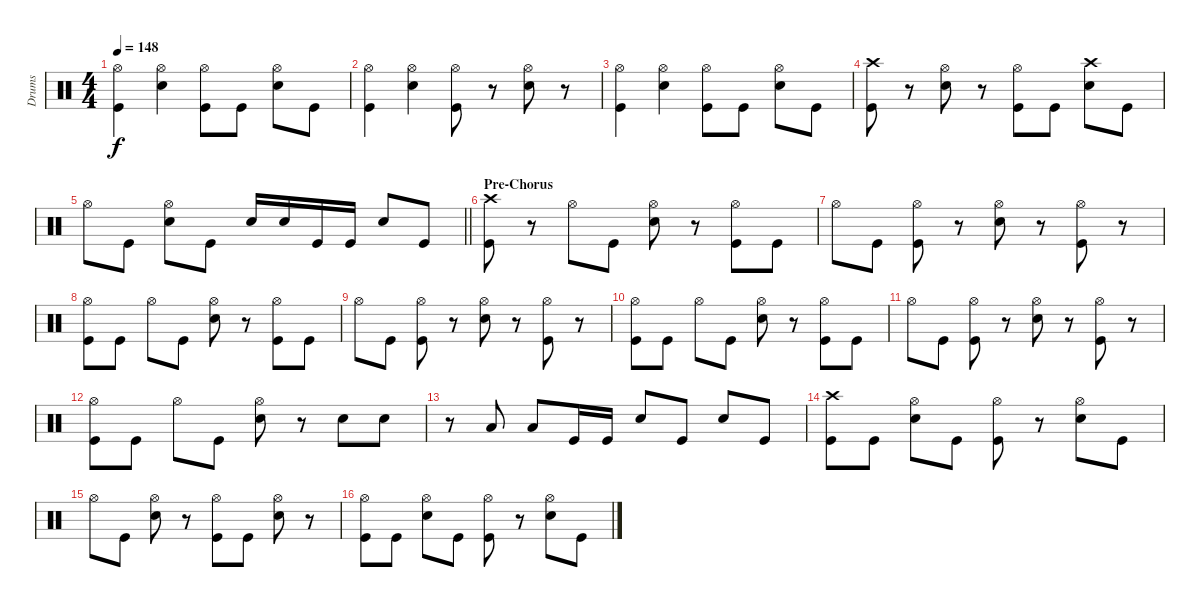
\track ("Drums" "Drums") {instrument percussion}
\staff {score}
\articulation defaults
\ts (4 4)
\tempo 148
\clef neutral
\ks c
("Hi-Hat (open)" "Kick (hit)").4{dy f} ("Snare (hit) 2" "Hi-Hat (open)").4 ("Kick (hit)" "Hi-Hat (open)").8 "Kick (hit)".8 ("Snare (hit) 2" "Hi-Hat (open)").8 "Kick (hit)".8 |
("Hi-Hat (open)" "Kick (hit)").4 ("Snare (hit) 2" "Hi-Hat (open)").4 ("Kick (hit)" "Hi-Hat (open)").8 r.8 ("Snare (hit) 2" "Hi-Hat (open)").8 r.8 |
("Hi-Hat (open)" "Kick (hit)").4 ("Snare (hit) 2" "Hi-Hat (open)").4 ("Kick (hit)" "Hi-Hat (open)").8 "Kick (hit)".8 ("Snare (hit) 2" "Hi-Hat (open)").8 "Kick (hit)".8 |
("Kick (hit)" "Crash high (hit)").8 r.8 ("Snare (hit) 2" "Hi-Hat (open)").8 r.8 ("Kick (hit)" "Hi-Hat (open)").8 "Kick (hit)".8 ("Snare (hit) 2" "Crash high (hit)").8 "Kick (hit)".8 |
\barLineRight lightlight "Hi-Hat (open)".8 "Kick (hit)".8
("Snare (hit) 2" "Hi-Hat (open)").8 "Kick (hit)".8 "Snare (hit) 2".16 "Snare (hit) 2".16 "Kick (hit)".16 "Kick (hit)".16 "Snare (hit) 2".8 "Kick (hit)".8 |
\section ("" "Pre-Chorus")
("Kick (hit)" "Crash high (hit)").8 r.8 "Hi-Hat (open)".8 "Kick (hit)".8 ("Snare (hit) 2" "Hi-Hat (open)").8 r.8 ("Kick (hit)" "Hi-Hat (open)").8 "Kick (hit)".8 |
"Hi-Hat (open)".8 "Kick (hit)".8 ("Kick (hit)" "Hi-Hat (open)").8 r.8 ("Snare (hit) 2" "Hi-Hat (open)").8 r.8 ("Hi-Hat (open)" "Kick (hit)").8 r.8 |
("Kick (hit)" "Hi-Hat (open)").8 "Kick (hit)".8 "Hi-Hat (open)".8 "Kick (hit)".8 ("Snare (hit) 2" "Hi-Hat (open)").8 r.8 ("Kick (hit)" "Hi-Hat (open)").8 "Kick (hit)".8 |
"Hi-Hat (open)".8 "Kick (hit)".8 ("Kick (hit)" "Hi-Hat (open)").8 r.8 ("Snare (hit) 2" "Hi-Hat (open)").8 r.8 ("Hi-Hat (open)" "Kick (hit)").8 r.8 |
("Hi-Hat (open)" "Kick (hit)").8 "Kick (hit)".8 "Hi-Hat (open)".8 "Kick (hit)".8 ("Snare (hit) 2" "Hi-Hat (open)").8 r.8 ("Kick (hit)" "Hi-Hat (open)").8 "Kick (hit)".8 |
"Hi-Hat (open)".8 "Kick (hit)".8 ("Kick (hit)" "Hi-Hat (open)").8 r.8 ("Snare (hit) 2" "Hi-Hat (open)").8 r.8 ("Hi-Hat (open)" "Kick (hit)").8 r.8 |
("Kick (hit)" "Hi-Hat (open)").8 "Kick (hit)".8 "Hi-Hat (open)".8 "Kick (hit)".8 ("Snare (hit) 2" "Hi-Hat (open)").8 r.8 "Snare (hit) 2".8 "Snare (hit) 2".8 |
r.8 "Low Tom (hit)".8 "Low Tom (hit)".8 "Kick (hit)".16 "Kick (hit)".16 "Snare (hit) 2".8 "Kick (hit)".8 "Snare (hit) 2".8 "Kick (hit)".8 |
("Kick (hit)" "Crash high (hit)").8 "Kick (hit)".8 ("Hi-Hat (open)" "Snare (hit) 2").8 "Kick (hit)".8 ("Kick (hit)" "Hi-Hat (open)").8 r.8 ("Hi-Hat (open)" "Snare (hit) 2").8 "Kick (hit)".8 |
"Hi-Hat (open)".8 "Kick (hit)".8 ("Hi-Hat (open)" "Snare (hit) 2").8 r.8 ("Hi-Hat (open)" "Kick (hit)").8 "Kick (hit)".8 ("Hi-Hat (open)" "Snare (hit) 2").8 r.8 |
("Hi-Hat (open)" "Kick (hit)").8 "Kick (hit)".8 ("Hi-Hat (open)" "Snare (hit) 2").8 "Kick (hit)".8 ("Hi-Hat (open)" "Kick (hit)").8 r.8 ("Hi-Hat (open)" "Snare (hit) 2").8 "Kick (hit)".8
